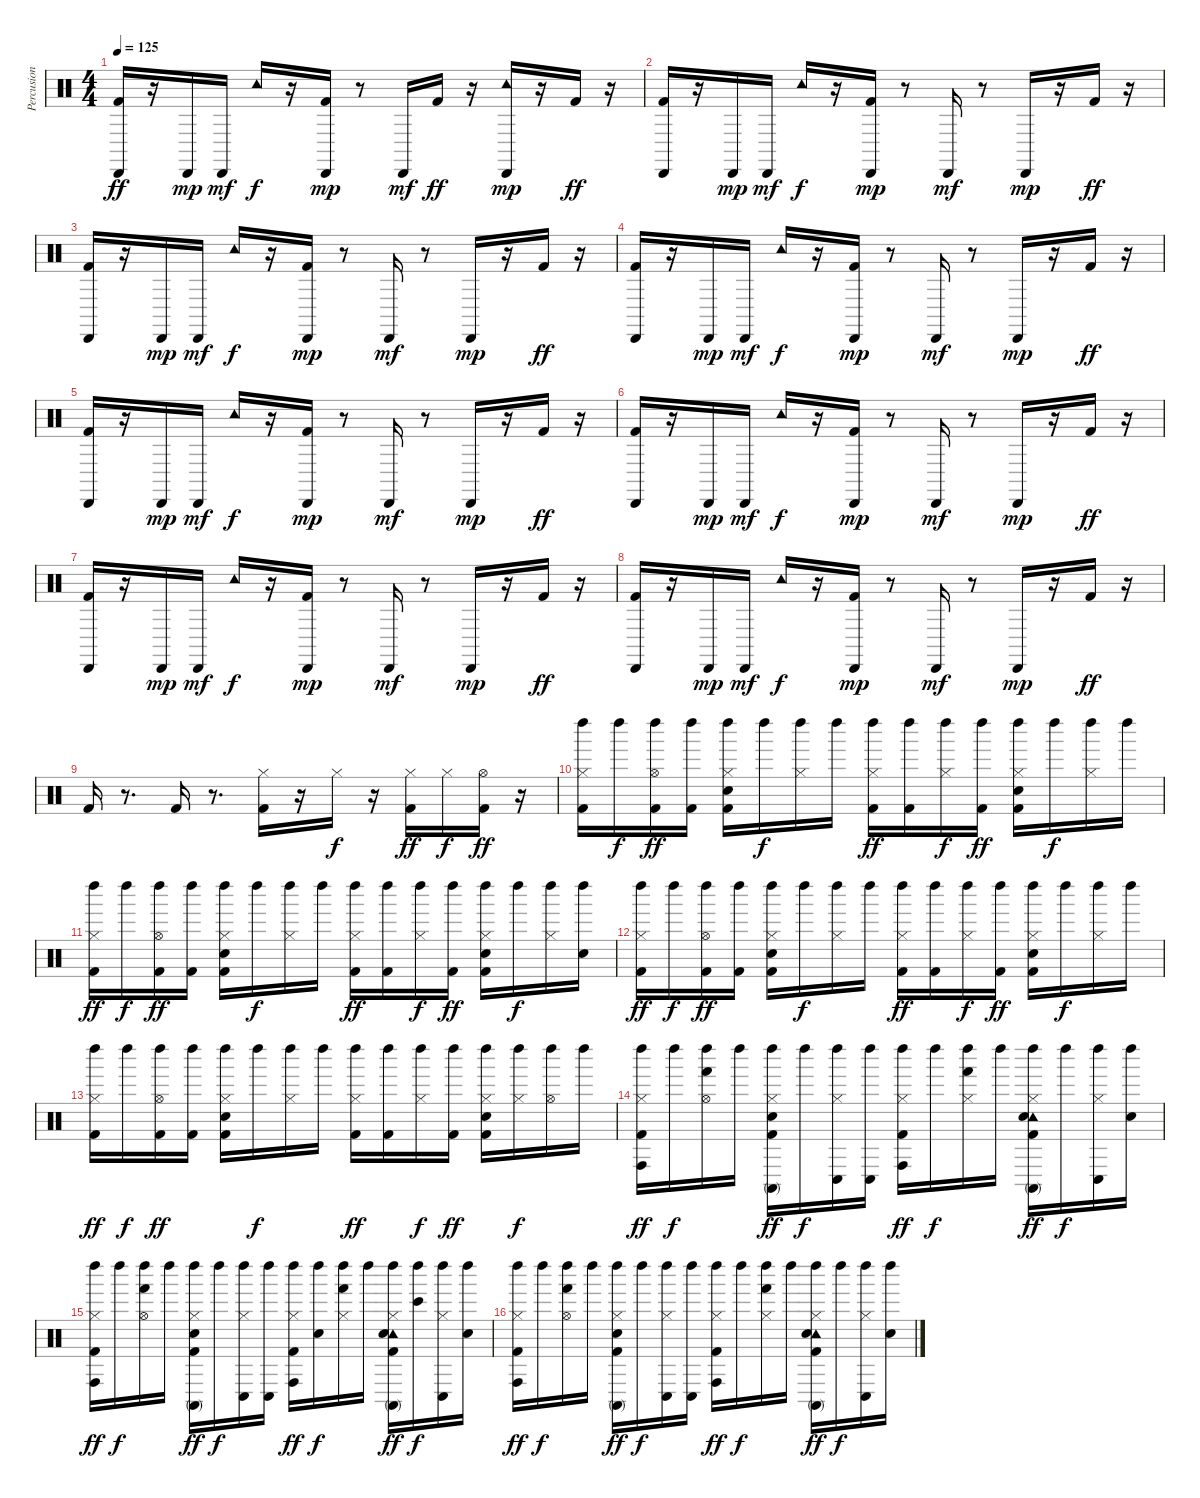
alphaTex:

\track ("Percusion" "Percusion") {instrument percussion}
\staff {score}
\articulation defaults
\ts (4 4)
\tempo 125
\clef neutral
\ks c
("Cabasa (hit)" "Kick (hit) 2").16{dy ff} r.16 "Cabasa (hit)".16{dy mp} "Cabasa (hit)".16{dy mf} "Tambourine (hit)".16{dy f} r.16 ("Kick (hit) 2" "Cabasa (hit)").16{dy mp} r.8 "Cabasa (hit)".16{dy mf} "Kick (hit) 2".16{dy ff} r.16 ("Cabasa (hit)" "Tambourine (hit)").16{dy mp} r.16 "Kick (hit) 2".16{dy ff} r.16 |
("Cabasa (hit)" "Kick (hit) 2").16 r.16 "Cabasa (hit)".16{dy mp} "Cabasa (hit)".16{dy mf} "Tambourine (hit)".16{dy f} r.16 ("Kick (hit) 2" "Cabasa (hit)").16{dy mp} r.8 "Cabasa (hit)".16{dy mf} r.8 "Cabasa (hit)".16{dy mp} r.16 "Kick (hit) 2".16{dy ff} r.16 |
("Cabasa (hit)" "Kick (hit) 2").16 r.16 "Cabasa (hit)".16{dy mp} "Cabasa (hit)".16{dy mf} "Tambourine (hit)".16{dy f} r.16 ("Kick (hit) 2" "Cabasa (hit)").16{dy mp} r.8 "Cabasa (hit)".16{dy mf} r.8 "Cabasa (hit)".16{dy mp} r.16 "Kick (hit) 2".16{dy ff} r.16 |
("Cabasa (hit)" "Kick (hit) 2").16 r.16 "Cabasa (hit)".16{dy mp} "Cabasa (hit)".16{dy mf} "Tambourine (hit)".16{dy f} r.16 ("Kick (hit) 2" "Cabasa (hit)").16{dy mp} r.8 "Cabasa (hit)".16{dy mf} r.8 "Cabasa (hit)".16{dy mp} r.16 "Kick (hit) 2".16{dy ff} r.16 |
("Cabasa (hit)" "Kick (hit) 2").16 r.16 "Cabasa (hit)".16{dy mp} "Cabasa (hit)".16{dy mf} "Tambourine (hit)".16{dy f} r.16 ("Kick (hit) 2" "Cabasa (hit)").16{dy mp} r.8 "Cabasa (hit)".16{dy mf} r.8 "Cabasa (hit)".16{dy mp} r.16 "Kick (hit) 2".16{dy ff} r.16 |
("Cabasa (hit)" "Kick (hit) 2").16 r.16 "Cabasa (hit)".16{dy mp} "Cabasa (hit)".16{dy mf} "Tambourine (hit)".16{dy f} r.16 ("Kick (hit) 2" "Cabasa (hit)").16{dy mp} r.8 "Cabasa (hit)".16{dy mf} r.8 "Cabasa (hit)".16{dy mp} r.16 "Kick (hit) 2".16{dy ff} r.16 |
("Cabasa (hit)" "Kick (hit) 2").16 r.16 "Cabasa (hit)".16{dy mp} "Cabasa (hit)".16{dy mf} "Tambourine (hit)".16{dy f} r.16 ("Kick (hit) 2" "Cabasa (hit)").16{dy mp} r.8 "Cabasa (hit)".16{dy mf} r.8 "Cabasa (hit)".16{dy mp} r.16 "Kick (hit) 2".16{dy ff} r.16 |
("Cabasa (hit)" "Kick (hit) 2").16 r.16 "Cabasa (hit)".16{dy mp} "Cabasa (hit)".16{dy mf} "Tambourine (hit)".16{dy f} r.16 ("Kick (hit) 2" "Cabasa (hit)").16{dy mp} r.8 "Cabasa (hit)".16{dy mf} r.8 "Cabasa (hit)".16{dy mp} r.16 "Kick (hit) 2".16{dy ff} r.16 |
"Kick (hit) 2".16 r.8{d} "Kick (hit) 2".16 r.8{d} ("Kick (hit) 2" "Hi-Hat (closed)").16 r.16 "Hi-Hat (closed)".16{dy f} r.16 ("Hi-Hat (closed)" "Kick (hit) 2").16{dy ff} "Hi-Hat (closed)".16{dy f} ("Hi-Hat (open)" "Kick (hit) 2").16{dy ff} r.16 |
("Left Maraca (hit)" "Hi-Hat (closed)" "Kick (hit) 2").16 "Left Maraca (hit)".16{dy f} ("Left Maraca (hit)" "Hi-Hat (open)" "Kick (hit) 2").16{dy ff} ("Kick (hit) 2" "Left Maraca (hit)").16 ("Left Maraca (hit)" "Hi-Hat (closed)" "Kick (hit) 2" "Electric Snare (hit)").16 "Left Maraca (hit)".16{dy f} ("Left Maraca (hit)" "Hi-Hat (closed)").16 "Left Maraca (hit)".16 ("Left Maraca (hit)" "Hi-Hat (closed)" "Kick (hit) 2").16{dy ff} ("Kick (hit) 2" "Left Maraca (hit)").16 ("Left Maraca (hit)" "Hi-Hat (closed)").16{dy f} ("Left Maraca (hit)" "Kick (hit) 2").16{dy ff} ("Kick (hit) 2" "Electric Snare (hit)" "Left Maraca (hit)" "Hi-Hat (closed)").16 "Left Maraca (hit)".16{dy f} ("Left Maraca (hit)" "Hi-Hat (closed)").16 "Left Maraca (hit)".16 |
("Left Maraca (hit)" "Hi-Hat (closed)" "Kick (hit) 2").16{dy ff} "Left Maraca (hit)".16{dy f} ("Left Maraca (hit)" "Hi-Hat (open)" "Kick (hit) 2").16{dy ff} ("Kick (hit) 2" "Left Maraca (hit)").16 ("Left Maraca (hit)" "Hi-Hat (closed)" "Kick (hit) 2" "Electric Snare (hit)").16 "Left Maraca (hit)".16{dy f} ("Left Maraca (hit)" "Hi-Hat (closed)").16 "Left Maraca (hit)".16 ("Left Maraca (hit)" "Hi-Hat (closed)" "Kick (hit) 2").16{dy ff} ("Kick (hit) 2" "Left Maraca (hit)").16 ("Left Maraca (hit)" "Hi-Hat (closed)").16{dy f} ("Left Maraca (hit)" "Kick (hit) 2").16{dy ff} ("Kick (hit) 2" "Electric Snare (hit)" "Left Maraca (hit)" "Hi-Hat (closed)").16 "Left Maraca (hit)".16{dy f} ("Left Maraca (hit)" "Hi-Hat (closed)").16 ("Left Maraca (hit)" "Electric Snare (hit)").16 |
("Kick (hit) 2" "Left Maraca (hit)" "Hi-Hat (closed)").16{dy ff} "Left Maraca (hit)".16{dy f} ("Left Maraca (hit)" "Hi-Hat (open)" "Kick (hit) 2").16{dy ff} ("Kick (hit) 2" "Left Maraca (hit)").16 ("Left Maraca (hit)" "Hi-Hat (closed)" "Kick (hit) 2" "Electric Snare (hit)").16 "Left Maraca (hit)".16{dy f} ("Left Maraca (hit)" "Hi-Hat (closed)").16 "Left Maraca (hit)".16 ("Left Maraca (hit)" "Hi-Hat (closed)" "Kick (hit) 2").16{dy ff} ("Kick (hit) 2" "Left Maraca (hit)").16 ("Left Maraca (hit)" "Hi-Hat (closed)").16{dy f} ("Left Maraca (hit)" "Kick (hit) 2").16{dy ff} ("Kick (hit) 2" "Electric Snare (hit)" "Left Maraca (hit)" "Hi-Hat (closed)").16 "Left Maraca (hit)".16{dy f} ("Left Maraca (hit)" "Hi-Hat (closed)").16 "Left Maraca (hit)".16 |
("Left Maraca (hit)" "Hi-Hat (closed)" "Kick (hit) 2").16{dy ff} "Left Maraca (hit)".16{dy f} ("Left Maraca (hit)" "Hi-Hat (open)" "Kick (hit) 2").16{dy ff} ("Kick (hit) 2" "Left Maraca (hit)").16 ("Left Maraca (hit)" "Hi-Hat (closed)" "Kick (hit) 2" "Electric Snare (hit)").16 "Left Maraca (hit)".16{dy f} ("Left Maraca (hit)" "Hi-Hat (closed)").16 "Left Maraca (hit)".16 ("Left Maraca (hit)" "Hi-Hat (closed)" "Kick (hit) 2").16{dy ff} ("Kick (hit) 2" "Left Maraca (hit)").16 ("Left Maraca (hit)" "Hi-Hat (closed)").16{dy f} ("Left Maraca (hit)" "Kick (hit) 2").16{dy ff} ("Kick (hit) 2" "Electric Snare (hit)" "Left Maraca (hit)" "Hi-Hat (closed)").16 ("Left Maraca (hit)" "Hi-Hat (closed)").16{dy f} ("Left Maraca (hit)" "Hi-Hat (open)").16 "Left Maraca (hit)".16 |
("Left Maraca (hit)" "Hi-Hat (closed)" "Conga high (hit)" "Kick (hit) 2").16{dy ff} "Left Maraca (hit)".16{dy f} ("Left Maraca (hit)" "Hi-Hat (open)" "Hand (hit)").16 "Left Maraca (hit)".16 ("Left Maraca (hit)" "Hi-Hat (closed)" "Conga high (mute)" "Kick (hit) 2" "Electric Snare (hit)").16{dy ff} "Left Maraca (hit)".16{dy f} ("Left Maraca (hit)" "Hi-Hat (closed)" "Conga low (hit)").16 ("Conga low (hit)" "Left Maraca (hit)").16 ("Left Maraca (hit)" "Hi-Hat (closed)" "Conga high (hit)" "Kick (hit) 2").16{dy ff} "Left Maraca (hit)".16{dy f} ("Left Maraca (hit)" "Hi-Hat (closed)" "Hand (hit)").16 "Left Maraca (hit)".16 ("Left Maraca (hit)" "Hi-Hat (closed)" "Conga high (mute)" "Tambourine (hit)" "Kick (hit) 2" "Electric Snare (hit)").16{dy ff} "Left Maraca (hit)".16{dy f} ("Left Maraca (hit)" "Hi-Hat (closed)" "Conga low (hit)").16 ("Left Maraca (hit)" "Electric Snare (hit)").16 |
("Kick (hit) 2" "Left Maraca (hit)" "Hi-Hat (closed)" "Conga high (hit)").16{dy ff} "Left Maraca (hit)".16{dy f} ("Left Maraca (hit)" "Hi-Hat (open)" "Hand (hit)").16 "Left Maraca (hit)".16 ("Left Maraca (hit)" "Hi-Hat (closed)" "Conga high (mute)" "Kick (hit) 2" "Electric Snare (hit)").16{dy ff} "Left Maraca (hit)".16{dy f} ("Left Maraca (hit)" "Hi-Hat (closed)" "Conga low (hit)").16 ("Conga low (hit)" "Left Maraca (hit)").16 ("Left Maraca (hit)" "Hi-Hat (closed)" "Conga high (hit)" "Kick (hit) 2").16{dy ff} ("Electric Snare (hit)" "Left Maraca (hit)").16{dy f} ("Left Maraca (hit)" "Hi-Hat (closed)" "Hand (hit)").16 "Left Maraca (hit)".16 ("Left Maraca (hit)" "Hi-Hat (closed)" "Conga high (mute)" "Tambourine (hit)" "Electric Snare (hit)" "Kick (hit) 2").16{dy ff} ("Bongo High (hit)" "Left Maraca (hit)").16{dy f} ("Left Maraca (hit)" "Hi-Hat (closed)" "Conga low (hit)").16 ("Left Maraca (hit)" "Electric Snare (hit)").16 |
("Kick (hit) 2" "Left Maraca (hit)" "Hi-Hat (closed)" "Conga high (hit)").16{dy ff} "Left Maraca (hit)".16{dy f} ("Left Maraca (hit)" "Hi-Hat (open)" "Hand (hit)").16 "Left Maraca (hit)".16 ("Left Maraca (hit)" "Hi-Hat (closed)" "Conga high (mute)" "Kick (hit) 2" "Electric Snare (hit)").16{dy ff} "Left Maraca (hit)".16{dy f} ("Left Maraca (hit)" "Hi-Hat (closed)" "Conga low (hit)").16 ("Conga low (hit)" "Left Maraca (hit)").16 ("Left Maraca (hit)" "Hi-Hat (closed)" "Conga high (hit)" "Kick (hit) 2").16{dy ff} "Left Maraca (hit)".16{dy f} ("Left Maraca (hit)" "Hi-Hat (closed)" "Hand (hit)").16 "Left Maraca (hit)".16 ("Left Maraca (hit)" "Hi-Hat (closed)" "Conga high (mute)" "Tambourine (hit)" "Kick (hit) 2" "Electric Snare (hit)").16{dy ff} "Left Maraca (hit)".16{dy f} ("Left Maraca (hit)" "Hi-Hat (closed)" "Conga low (hit)").16 ("Left Maraca (hit)" "Electric Snare (hit)").16
